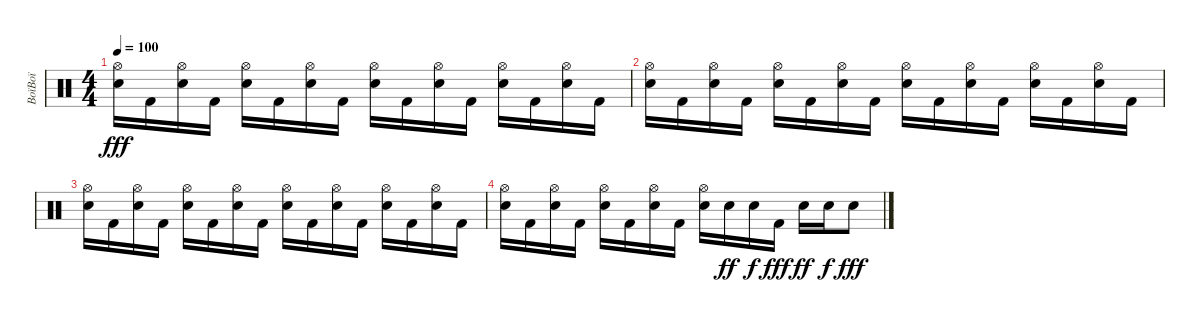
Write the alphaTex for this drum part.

\track ("BoïBoï" "BoïBoï") {instrument percussion}
\staff {score}
\articulation defaults
\ts (4 4)
\tempo 100
\clef neutral
\ks c
("Hi-Hat (open)" "Electric Snare (hit)").16{dy fff} "Kick (hit) 2".16 ("Hi-Hat (open)" "Electric Snare (hit)").16 "Kick (hit) 2".16 ("Hi-Hat (open)" "Electric Snare (hit)").16 "Kick (hit) 2".16 ("Hi-Hat (open)" "Electric Snare (hit)").16 "Kick (hit) 2".16 ("Hi-Hat (open)" "Electric Snare (hit)").16 "Kick (hit) 2".16 ("Hi-Hat (open)" "Electric Snare (hit)").16 "Kick (hit) 2".16 ("Hi-Hat (open)" "Electric Snare (hit)").16 "Kick (hit) 2".16 ("Hi-Hat (open)" "Electric Snare (hit)").16 "Kick (hit) 2".16 |
("Hi-Hat (open)" "Electric Snare (hit)").16 "Kick (hit) 2".16 ("Hi-Hat (open)" "Electric Snare (hit)").16 "Kick (hit) 2".16 ("Hi-Hat (open)" "Electric Snare (hit)").16 "Kick (hit) 2".16 ("Hi-Hat (open)" "Electric Snare (hit)").16 "Kick (hit) 2".16 ("Hi-Hat (open)" "Electric Snare (hit)").16 "Kick (hit) 2".16 ("Hi-Hat (open)" "Electric Snare (hit)").16 "Kick (hit) 2".16 ("Hi-Hat (open)" "Electric Snare (hit)").16 "Kick (hit) 2".16 ("Hi-Hat (open)" "Electric Snare (hit)").16 "Kick (hit) 2".16 |
("Hi-Hat (open)" "Electric Snare (hit)").16 "Kick (hit) 2".16 ("Hi-Hat (open)" "Electric Snare (hit)").16 "Kick (hit) 2".16 ("Hi-Hat (open)" "Electric Snare (hit)").16 "Kick (hit) 2".16 ("Hi-Hat (open)" "Electric Snare (hit)").16 "Kick (hit) 2".16 ("Hi-Hat (open)" "Electric Snare (hit)").16 "Kick (hit) 2".16 ("Hi-Hat (open)" "Electric Snare (hit)").16 "Kick (hit) 2".16 ("Hi-Hat (open)" "Electric Snare (hit)").16 "Kick (hit) 2".16 ("Hi-Hat (open)" "Electric Snare (hit)").16 "Kick (hit) 2".16 |
("Hi-Hat (open)" "Electric Snare (hit)").16 "Kick (hit) 2".16 ("Hi-Hat (open)" "Electric Snare (hit)").16 "Kick (hit) 2".16 ("Hi-Hat (open)" "Electric Snare (hit)").16 "Kick (hit) 2".16 ("Hi-Hat (open)" "Electric Snare (hit)").16 "Kick (hit) 2".16 ("Hi-Hat (open)" "Electric Snare (hit)").16 "Electric Snare (hit)".16{dy ff} "Electric Snare (hit)".16{dy f} "Kick (hit) 2".16{dy fff} "Electric Snare (hit)".16{dy ff} "Electric Snare (hit)".16{dy f} "Electric Snare (hit)".8{dy fff}
